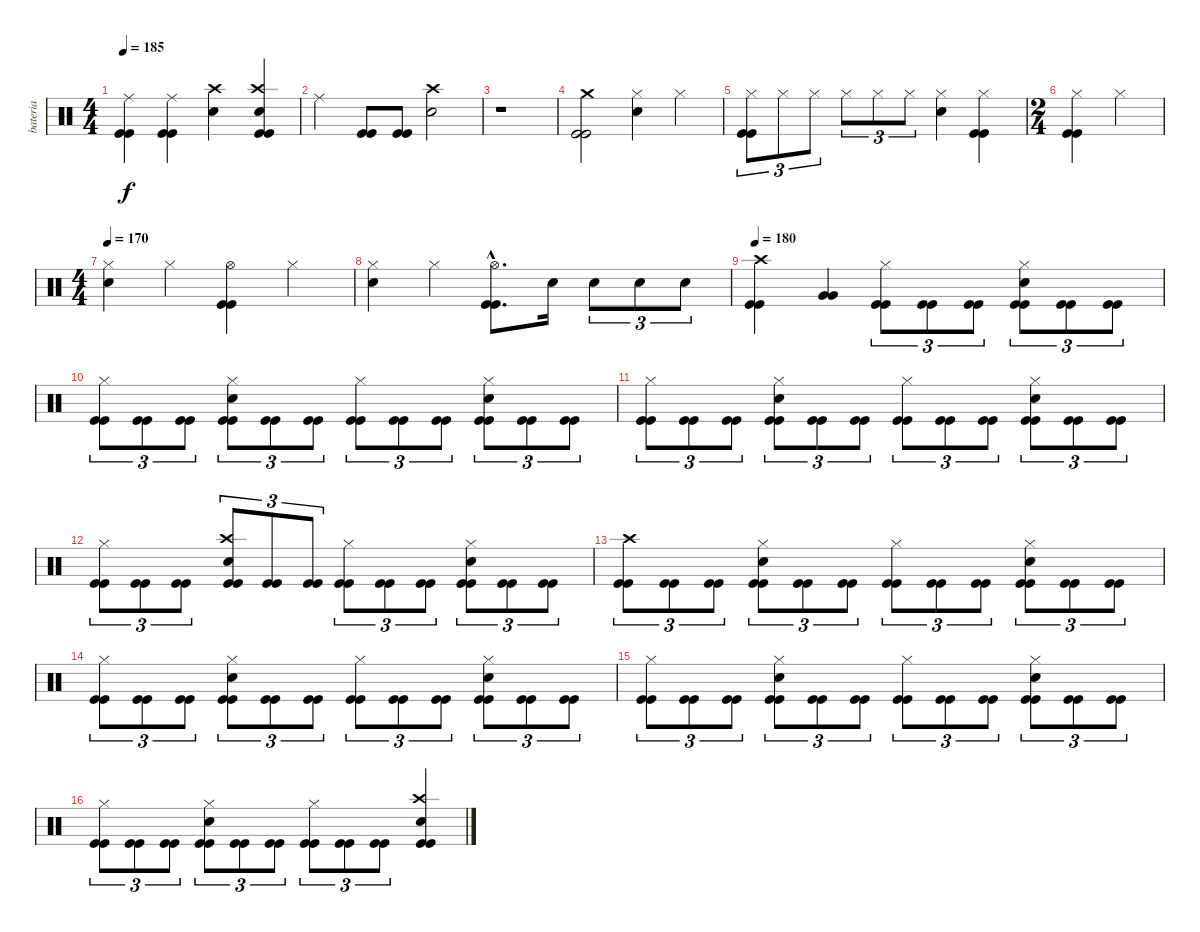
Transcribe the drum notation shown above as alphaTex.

\track ("bateria" "bateria") {instrument percussion}
\staff {score}
\articulation defaults
\ts (4 4)
\tempo 185
\clef neutral
\ks c
("Ride (middle)" "Kick (hit)" "Kick (hit)").4{dy f} ("Ride (middle)" "Kick (hit)" "Kick (hit)").4 ("Crash high (hit)" "Snare (hit) 2").4 ("Crash high (hit)" "Snare (hit) 2" "Kick (hit)" "Kick (hit)").4 |
"Ride (middle)".4 ("Kick (hit)" "Kick (hit)").8 ("Kick (hit)" "Kick (hit)").8 ("Crash high (hit)" "Snare (hit) 2").2 |
r.1 |
("Crash medium (hit)" "Kick (hit)" "Kick (hit)").2 ("Hi-Hat (closed)" "Snare (hit) 2").4 "Hi-Hat (closed)".4 |
("Hi-Hat (closed)" "Kick (hit)" "Kick (hit)").8{tu (3 2)} "Hi-Hat (closed)".8{tu (3 2)} "Hi-Hat (closed)".8{tu (3 2)} "Hi-Hat (closed)".8{tu (3 2)} "Hi-Hat (closed)".8{tu (3 2)} "Hi-Hat (closed)".8{tu (3 2)} ("Hi-Hat (closed)" "Snare (hit) 2").4 ("Hi-Hat (closed)" "Kick (hit)" "Kick (hit)").4 |
\ts (2 4)
("Hi-Hat (closed)" "Kick (hit)" "Kick (hit)").4 "Hi-Hat (closed)".4 |
\ts (4 4)
\tempo 180
\tempo 170
("Hi-Hat (closed)" "Snare (hit) 2").4 "Hi-Hat (closed)".4 ("Hi-Hat (open)" "Kick (hit)" "Kick (hit)").4 "Hi-Hat (closed)".4 |
("Hi-Hat (closed)" "Snare (hit) 2").4 "Hi-Hat (closed)".4 ("Hi-Hat (open)"{hac} "Kick (hit)"{hac} "Kick (hit)"{hac}).8{d} "Snare (hit) 2".16 "Snare (hit) 2".8{tu (3 2)} "Snare (hit) 2".8{tu (3 2)} "Snare (hit) 2".8{tu (3 2)} |
\tempo 180
("Crash high (hit)" "Kick (hit)" "Kick (hit)").4 ("Very Low Tom (hit)" "Very Low Tom (hit)").4 ("Hi-Hat (closed)" "Kick (hit)" "Kick (hit)").8{tu (3 2)} ("Kick (hit)" "Kick (hit)").8{tu (3 2)} ("Kick (hit)" "Kick (hit)").8{tu (3 2)} ("Hi-Hat (closed)" "Snare (hit) 2" "Kick (hit)" "Kick (hit)").8{tu (3 2)} ("Kick (hit)" "Kick (hit)").8{tu (3 2)} ("Kick (hit)" "Kick (hit)").8{tu (3 2)} |
("Hi-Hat (closed)" "Kick (hit)" "Kick (hit)").8{tu (3 2)} ("Kick (hit)" "Kick (hit)").8{tu (3 2)} ("Kick (hit)" "Kick (hit)").8{tu (3 2)} ("Hi-Hat (closed)" "Snare (hit) 2" "Kick (hit)" "Kick (hit)").8{tu (3 2)} ("Kick (hit)" "Kick (hit)").8{tu (3 2)} ("Kick (hit)" "Kick (hit)").8{tu (3 2)} ("Hi-Hat (closed)" "Kick (hit)" "Kick (hit)").8{tu (3 2)} ("Kick (hit)" "Kick (hit)").8{tu (3 2)} ("Kick (hit)" "Kick (hit)").8{tu (3 2)} ("Hi-Hat (closed)" "Snare (hit) 2" "Kick (hit)" "Kick (hit)").8{tu (3 2)} ("Kick (hit)" "Kick (hit)").8{tu (3 2)} ("Kick (hit)" "Kick (hit)").8{tu (3 2)} |
("Hi-Hat (closed)" "Kick (hit)" "Kick (hit)").8{tu (3 2)} ("Kick (hit)" "Kick (hit)").8{tu (3 2)} ("Kick (hit)" "Kick (hit)").8{tu (3 2)} ("Hi-Hat (closed)" "Snare (hit) 2" "Kick (hit)" "Kick (hit)").8{tu (3 2)} ("Kick (hit)" "Kick (hit)").8{tu (3 2)} ("Kick (hit)" "Kick (hit)").8{tu (3 2)} ("Hi-Hat (closed)" "Kick (hit)" "Kick (hit)").8{tu (3 2)} ("Kick (hit)" "Kick (hit)").8{tu (3 2)} ("Kick (hit)" "Kick (hit)").8{tu (3 2)} ("Hi-Hat (closed)" "Snare (hit) 2" "Kick (hit)" "Kick (hit)").8{tu (3 2)} ("Kick (hit)" "Kick (hit)").8{tu (3 2)} ("Kick (hit)" "Kick (hit)").8{tu (3 2)} |
("Hi-Hat (closed)" "Kick (hit)" "Kick (hit)").8{tu (3 2)} ("Kick (hit)" "Kick (hit)").8{tu (3 2)} ("Kick (hit)" "Kick (hit)").8{tu (3 2)} ("Crash high (hit)" "Snare (hit) 2" "Kick (hit)" "Kick (hit)").8{tu (3 2)} ("Kick (hit)" "Kick (hit)").8{tu (3 2)} ("Kick (hit)" "Kick (hit)").8{tu (3 2)} ("Hi-Hat (closed)" "Kick (hit)" "Kick (hit)").8{tu (3 2)} ("Kick (hit)" "Kick (hit)").8{tu (3 2)} ("Kick (hit)" "Kick (hit)").8{tu (3 2)} ("Hi-Hat (closed)" "Snare (hit) 2" "Kick (hit)" "Kick (hit)").8{tu (3 2)} ("Kick (hit)" "Kick (hit)").8{tu (3 2)} ("Kick (hit)" "Kick (hit)").8{tu (3 2)} |
("Crash high (hit)" "Kick (hit)" "Kick (hit)").8{tu (3 2)} ("Kick (hit)" "Kick (hit)").8{tu (3 2)} ("Kick (hit)" "Kick (hit)").8{tu (3 2)} ("Hi-Hat (closed)" "Snare (hit) 2" "Kick (hit)" "Kick (hit)").8{tu (3 2)} ("Kick (hit)" "Kick (hit)").8{tu (3 2)} ("Kick (hit)" "Kick (hit)").8{tu (3 2)} ("Hi-Hat (closed)" "Kick (hit)" "Kick (hit)").8{tu (3 2)} ("Kick (hit)" "Kick (hit)").8{tu (3 2)} ("Kick (hit)" "Kick (hit)").8{tu (3 2)} ("Hi-Hat (closed)" "Snare (hit) 2" "Kick (hit)" "Kick (hit)").8{tu (3 2)} ("Kick (hit)" "Kick (hit)").8{tu (3 2)} ("Kick (hit)" "Kick (hit)").8{tu (3 2)} |
("Hi-Hat (closed)" "Kick (hit)" "Kick (hit)").8{tu (3 2)} ("Kick (hit)" "Kick (hit)").8{tu (3 2)} ("Kick (hit)" "Kick (hit)").8{tu (3 2)} ("Hi-Hat (closed)" "Snare (hit) 2" "Kick (hit)" "Kick (hit)").8{tu (3 2)} ("Kick (hit)" "Kick (hit)").8{tu (3 2)} ("Kick (hit)" "Kick (hit)").8{tu (3 2)} ("Hi-Hat (closed)" "Kick (hit)" "Kick (hit)").8{tu (3 2)} ("Kick (hit)" "Kick (hit)").8{tu (3 2)} ("Kick (hit)" "Kick (hit)").8{tu (3 2)} ("Hi-Hat (closed)" "Snare (hit) 2" "Kick (hit)" "Kick (hit)").8{tu (3 2)} ("Kick (hit)" "Kick (hit)").8{tu (3 2)} ("Kick (hit)" "Kick (hit)").8{tu (3 2)} |
("Hi-Hat (closed)" "Kick (hit)" "Kick (hit)").8{tu (3 2)} ("Kick (hit)" "Kick (hit)").8{tu (3 2)} ("Kick (hit)" "Kick (hit)").8{tu (3 2)} ("Hi-Hat (closed)" "Snare (hit) 2" "Kick (hit)" "Kick (hit)").8{tu (3 2)} ("Kick (hit)" "Kick (hit)").8{tu (3 2)} ("Kick (hit)" "Kick (hit)").8{tu (3 2)} ("Hi-Hat (closed)" "Kick (hit)" "Kick (hit)").8{tu (3 2)} ("Kick (hit)" "Kick (hit)").8{tu (3 2)} ("Kick (hit)" "Kick (hit)").8{tu (3 2)} ("Hi-Hat (closed)" "Snare (hit) 2" "Kick (hit)" "Kick (hit)").8{tu (3 2)} ("Kick (hit)" "Kick (hit)").8{tu (3 2)} ("Kick (hit)" "Kick (hit)").8{tu (3 2)} |
("Hi-Hat (closed)" "Kick (hit)" "Kick (hit)").8{tu (3 2)} ("Kick (hit)" "Kick (hit)").8{tu (3 2)} ("Kick (hit)" "Kick (hit)").8{tu (3 2)} ("Hi-Hat (closed)" "Snare (hit) 2" "Kick (hit)" "Kick (hit)").8{tu (3 2)} ("Kick (hit)" "Kick (hit)").8{tu (3 2)} ("Kick (hit)" "Kick (hit)").8{tu (3 2)} ("Hi-Hat (closed)" "Kick (hit)" "Kick (hit)").8{tu (3 2)} ("Kick (hit)" "Kick (hit)").8{tu (3 2)} ("Kick (hit)" "Kick (hit)").8{tu (3 2)} ("Crash high (hit)" "Snare (hit) 2" "Kick (hit)" "Kick (hit)").4
